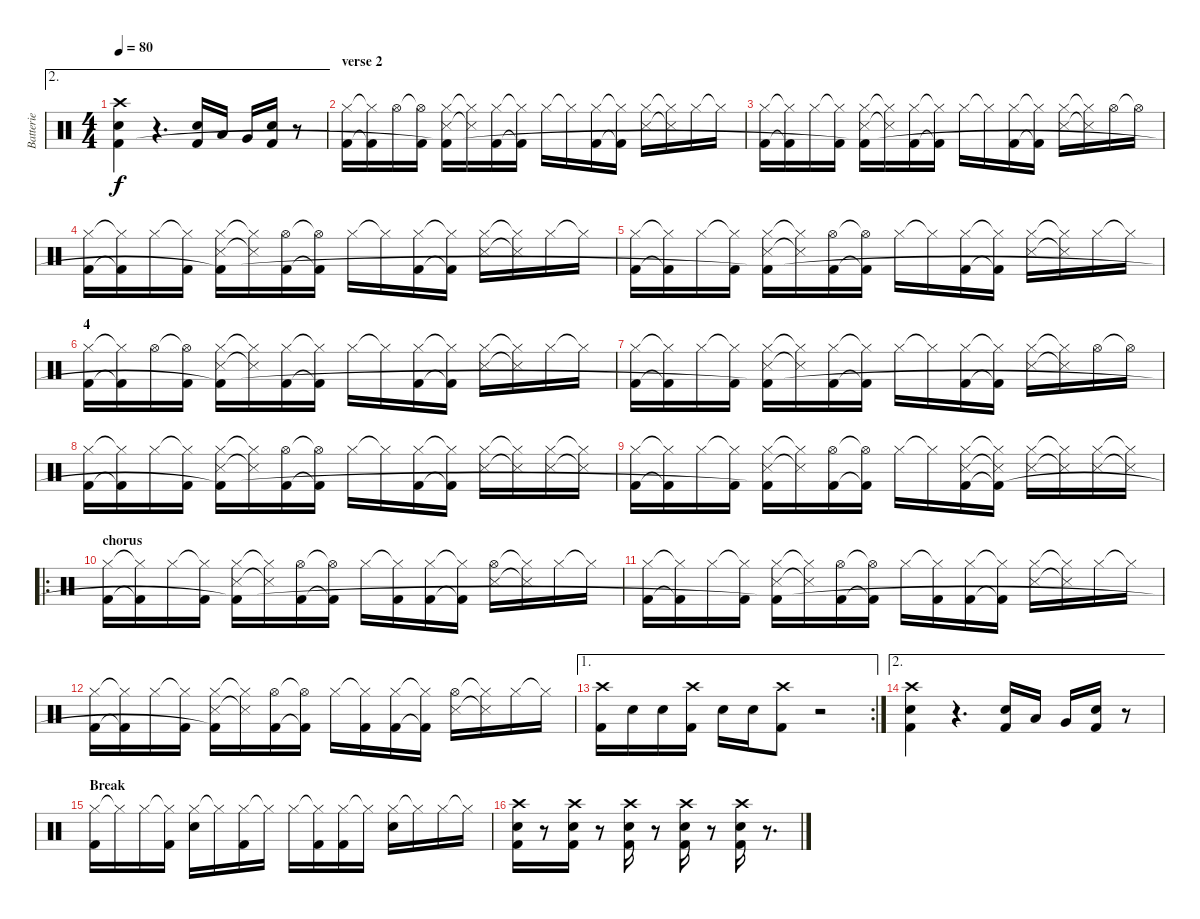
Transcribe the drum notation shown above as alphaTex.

\track ("Batterie" "Batterie") {instrument percussion}
\staff {score}
\articulation defaults
\ae 2
\ts (4 4)
\tempo 80
\clef neutral
\ks c
("Crash high (hit)" "Snare (hit) 2" "Kick (hit) 2").4{dy f} r.4{d} ("Snare (hit) 2" "Kick (hit) 2").16 "Low Tom (hit)".16 "Very Low Tom (hit)".16 ("Snare (hit) 2" "Kick (hit) 2").16 r.8 |
\section ("" "verse 2")
("Hi-Hat (closed)" "Kick (hit) 2").16 ("Hi-Hat (closed)"{t} "Kick (hit) 2"{t}).16 "Hi-Hat (open)".16 ("Hi-Hat (open)"{t} "Kick (hit) 2").16 ("Hi-Hat (closed)" "Snare (side stick) 3" "Kick (hit) 2"{t}).16 ("Hi-Hat (closed)"{t} "Snare (side stick) 3"{t}).16 ("Hi-Hat (closed)" "Kick (hit) 2").16 ("Hi-Hat (closed)"{t} "Kick (hit) 2"{t}).16 "Hi-Hat (closed)".16 "Hi-Hat (closed)"{t}.16 ("Hi-Hat (closed)" "Kick (hit) 2").16 ("Hi-Hat (closed)"{t} "Kick (hit) 2"{t}).16 ("Hi-Hat (closed)" "Snare (side stick) 3").16 ("Hi-Hat (closed)"{t} "Snare (side stick) 3"{t}).16 "Hi-Hat (closed)".16 "Hi-Hat (closed)"{t}.16 |
("Hi-Hat (closed)" "Kick (hit) 2").16 ("Hi-Hat (closed)"{t} "Kick (hit) 2"{t}).16 "Hi-Hat (closed)".16 ("Hi-Hat (closed)"{t} "Kick (hit) 2").16 ("Hi-Hat (closed)" "Snare (side stick) 3" "Kick (hit) 2"{t}).16 ("Hi-Hat (closed)"{t} "Snare (side stick) 3"{t}).16 ("Hi-Hat (closed)" "Kick (hit) 2").16 ("Hi-Hat (closed)"{t} "Kick (hit) 2"{t}).16 "Hi-Hat (closed)".16 "Hi-Hat (closed)"{t}.16 ("Hi-Hat (closed)" "Kick (hit) 2").16 ("Hi-Hat (closed)"{t} "Kick (hit) 2"{t}).16 ("Hi-Hat (closed)" "Snare (side stick) 3").16 ("Hi-Hat (closed)"{t} "Snare (side stick) 3"{t}).16 "Hi-Hat (open)".16 "Hi-Hat (open)"{t}.16 |
("Hi-Hat (closed)" "Kick (hit) 2").16 ("Hi-Hat (closed)"{t} "Kick (hit) 2"{t}).16 "Hi-Hat (closed)".16 ("Hi-Hat (closed)"{t} "Kick (hit) 2").16 ("Hi-Hat (closed)" "Snare (side stick) 3" "Kick (hit) 2"{t}).16 ("Hi-Hat (closed)"{t} "Snare (side stick) 3"{t}).16 ("Hi-Hat (open)" "Kick (hit) 2").16 ("Hi-Hat (open)"{t} "Kick (hit) 2"{t}).16 "Hi-Hat (closed)".16 "Hi-Hat (closed)"{t}.16 ("Hi-Hat (closed)" "Kick (hit) 2").16 ("Hi-Hat (closed)"{t} "Kick (hit) 2"{t}).16 ("Hi-Hat (closed)" "Snare (side stick) 3").16 ("Hi-Hat (closed)"{t} "Snare (side stick) 3"{t}).16 "Hi-Hat (closed)".16 "Hi-Hat (closed)"{t}.16 |
("Hi-Hat (closed)" "Kick (hit) 2").16 ("Hi-Hat (closed)"{t} "Kick (hit) 2"{t}).16 "Hi-Hat (closed)".16 ("Hi-Hat (closed)"{t} "Kick (hit) 2").16 ("Hi-Hat (closed)" "Snare (side stick) 3" "Kick (hit) 2"{t}).16 ("Hi-Hat (closed)"{t} "Snare (side stick) 3"{t}).16 ("Hi-Hat (open)" "Kick (hit) 2").16 ("Hi-Hat (open)"{t} "Kick (hit) 2"{t}).16 "Hi-Hat (closed)".16 "Hi-Hat (closed)"{t}.16 ("Hi-Hat (closed)" "Kick (hit) 2").16 ("Hi-Hat (closed)"{t} "Kick (hit) 2"{t}).16 ("Hi-Hat (closed)" "Snare (side stick) 3").16 ("Hi-Hat (closed)"{t} "Snare (side stick) 3"{t}).16 "Hi-Hat (closed)".16 "Hi-Hat (closed)"{t}.16 |
\section ("" "4")
("Hi-Hat (closed)" "Kick (hit) 2").16 ("Hi-Hat (closed)"{t} "Kick (hit) 2"{t}).16 "Hi-Hat (open)".16 ("Hi-Hat (open)"{t} "Kick (hit) 2").16 ("Hi-Hat (closed)" "Snare (side stick) 3" "Kick (hit) 2"{t}).16 ("Hi-Hat (closed)"{t} "Snare (side stick) 3"{t}).16 ("Hi-Hat (closed)" "Kick (hit) 2").16 ("Hi-Hat (closed)"{t} "Kick (hit) 2"{t}).16 "Hi-Hat (closed)".16 "Hi-Hat (closed)"{t}.16 ("Hi-Hat (closed)" "Kick (hit) 2").16 ("Hi-Hat (closed)"{t} "Kick (hit) 2"{t}).16 ("Hi-Hat (closed)" "Snare (side stick) 3").16 ("Hi-Hat (closed)"{t} "Snare (side stick) 3"{t}).16 "Hi-Hat (closed)".16 "Hi-Hat (closed)"{t}.16 |
("Hi-Hat (closed)" "Kick (hit) 2").16 ("Hi-Hat (closed)"{t} "Kick (hit) 2"{t}).16 "Hi-Hat (closed)".16 ("Hi-Hat (closed)"{t} "Kick (hit) 2").16 ("Hi-Hat (closed)" "Snare (side stick) 3" "Kick (hit) 2"{t}).16 ("Hi-Hat (closed)"{t} "Snare (side stick) 3"{t}).16 ("Hi-Hat (closed)" "Kick (hit) 2").16 ("Hi-Hat (closed)"{t} "Kick (hit) 2"{t}).16 "Hi-Hat (closed)".16 "Hi-Hat (closed)"{t}.16 ("Hi-Hat (closed)" "Kick (hit) 2").16 ("Hi-Hat (closed)"{t} "Kick (hit) 2"{t}).16 ("Hi-Hat (closed)" "Snare (side stick) 3").16 ("Hi-Hat (closed)"{t} "Snare (side stick) 3"{t}).16 "Hi-Hat (open)".16 "Hi-Hat (open)"{t}.16 |
("Hi-Hat (closed)" "Kick (hit) 2").16 ("Hi-Hat (closed)"{t} "Kick (hit) 2"{t}).16 "Hi-Hat (closed)".16 ("Hi-Hat (closed)"{t} "Kick (hit) 2").16 ("Hi-Hat (closed)" "Snare (side stick) 3" "Kick (hit) 2"{t}).16 ("Hi-Hat (closed)"{t} "Snare (side stick) 3"{t}).16 ("Hi-Hat (open)" "Kick (hit) 2").16 ("Hi-Hat (open)"{t} "Kick (hit) 2"{t}).16 "Hi-Hat (closed)".16 "Hi-Hat (closed)"{t}.16 ("Hi-Hat (closed)" "Kick (hit) 2").16 ("Hi-Hat (closed)"{t} "Kick (hit) 2"{t}).16 ("Hi-Hat (closed)" "Snare (side stick) 3").16 ("Hi-Hat (closed)"{t} "Snare (side stick) 3"{t}).16 ("Hi-Hat (closed)" "Snare (side stick) 3").16 ("Hi-Hat (closed)"{t} "Snare (side stick) 3"{t}).16 |
("Hi-Hat (closed)" "Kick (hit) 2").16 ("Hi-Hat (closed)"{t} "Kick (hit) 2"{t}).16 "Hi-Hat (closed)".16 ("Hi-Hat (closed)"{t} "Kick (hit) 2").16 ("Hi-Hat (closed)" "Snare (side stick) 3" "Kick (hit) 2"{t}).16 ("Hi-Hat (closed)"{t} "Snare (side stick) 3"{t}).16 ("Hi-Hat (open)" "Kick (hit) 2").16 ("Hi-Hat (open)"{t} "Kick (hit) 2"{t}).16 "Hi-Hat (closed)".16 "Hi-Hat (closed)"{t}.16 ("Hi-Hat (closed)" "Snare (side stick) 3" "Kick (hit) 2").16 ("Hi-Hat (closed)"{t} "Snare (side stick) 3"{t} "Kick (hit) 2"{t}).16 ("Hi-Hat (closed)" "Snare (side stick) 3").16 ("Hi-Hat (closed)"{t} "Snare (side stick) 3"{t}).16 ("Hi-Hat (closed)" "Snare (side stick) 3").16 ("Hi-Hat (closed)"{t} "Snare (side stick) 3"{t}).16 |
\ro
\section ("" "chorus")
("Hi-Hat (closed)" "Kick (hit) 2").16 ("Hi-Hat (closed)"{t} "Kick (hit) 2"{t}).16 "Hi-Hat (closed)".16 ("Hi-Hat (closed)"{t} "Kick (hit) 2").16 ("Hi-Hat (closed)" "Snare (side stick) 3" "Kick (hit) 2"{t}).16 ("Hi-Hat (closed)"{t} "Snare (side stick) 3"{t}).16 ("Hi-Hat (open)" "Kick (hit) 2").16 ("Hi-Hat (open)"{t} "Kick (hit) 2"{t}).16 "Hi-Hat (closed)".16 ("Hi-Hat (closed)"{t} "Kick (hit) 2").16 ("Hi-Hat (closed)" "Kick (hit) 2").16 ("Hi-Hat (closed)"{t} "Kick (hit) 2"{t}).16 ("Hi-Hat (open)" "Snare (side stick) 3").16 ("Hi-Hat (closed)"{t} "Snare (side stick) 3"{t}).16 "Hi-Hat (closed)".16 "Hi-Hat (closed)"{t}.16 |
("Hi-Hat (closed)" "Kick (hit) 2").16 ("Hi-Hat (closed)"{t} "Kick (hit) 2"{t}).16 "Hi-Hat (closed)".16 ("Hi-Hat (closed)"{t} "Kick (hit) 2").16 ("Hi-Hat (closed)" "Snare (side stick) 3" "Kick (hit) 2"{t}).16 ("Hi-Hat (closed)"{t} "Snare (side stick) 3"{t}).16 ("Hi-Hat (open)" "Kick (hit) 2").16 ("Hi-Hat (open)"{t} "Kick (hit) 2"{t}).16 "Hi-Hat (closed)".16 ("Hi-Hat (closed)"{t} "Kick (hit) 2").16 ("Hi-Hat (closed)" "Kick (hit) 2").16 ("Hi-Hat (closed)"{t} "Kick (hit) 2"{t}).16 ("Hi-Hat (closed)" "Snare (side stick) 3").16 ("Hi-Hat (closed)"{t} "Snare (side stick) 3"{t}).16 "Hi-Hat (closed)".16 "Hi-Hat (closed)"{t}.16 |
("Hi-Hat (closed)" "Kick (hit) 2").16 ("Hi-Hat (closed)"{t} "Kick (hit) 2"{t}).16 "Hi-Hat (closed)".16 ("Hi-Hat (closed)"{t} "Kick (hit) 2").16 ("Hi-Hat (closed)" "Snare (side stick) 3" "Kick (hit) 2"{t}).16 ("Hi-Hat (closed)"{t} "Snare (side stick) 3"{t}).16 ("Hi-Hat (open)" "Kick (hit) 2").16 ("Hi-Hat (open)"{t} "Kick (hit) 2"{t}).16 "Hi-Hat (closed)".16 ("Hi-Hat (closed)"{t} "Kick (hit) 2").16 ("Hi-Hat (closed)" "Kick (hit) 2").16 ("Hi-Hat (closed)"{t} "Kick (hit) 2"{t}).16 ("Hi-Hat (open)" "Snare (side stick) 3").16 ("Hi-Hat (closed)"{t} "Snare (side stick) 3"{t}).16 "Hi-Hat (closed)".16 "Hi-Hat (closed)"{t}.16 |
\ae 1
\rc 2
("Crash high (hit)" "Kick (hit) 2").16 "Snare (hit) 2".16 "Snare (hit) 2".16 ("Crash high (hit)" "Kick (hit) 2").16 "Snare (hit) 2".16 "Snare (hit) 2".16 ("Crash high (hit)" "Kick (hit) 2").8 r.2 |
\ae 2
("Crash high (hit)" "Snare (hit) 2" "Kick (hit) 2").4 r.4{d} ("Snare (hit) 2" "Kick (hit) 2").16 "Low Tom (hit)".16 "Very Low Tom (hit)".16 ("Snare (hit) 2" "Kick (hit) 2").16 r.8 |
\section ("" "Break")
("Hi-Hat (closed)" "Kick (hit) 2").16 "Hi-Hat (closed)"{t}.16 "Hi-Hat (closed)".16 ("Hi-Hat (closed)"{t} "Kick (hit) 2").16 ("Hi-Hat (closed)" "Snare (hit) 2").16 "Hi-Hat (closed)"{t}.16 ("Hi-Hat (closed)" "Kick (hit) 2").16 "Hi-Hat (closed)"{t}.16 "Hi-Hat (closed)".16 ("Hi-Hat (closed)"{t} "Kick (hit) 2").16 ("Hi-Hat (closed)" "Kick (hit) 2").16 "Hi-Hat (closed)"{t}.16 ("Hi-Hat (closed)" "Snare (hit) 2").16 "Hi-Hat (closed)"{t}.16 "Hi-Hat (closed)".16 "Hi-Hat (closed)"{t}.16 |
("Crash high (hit)" "Snare (hit) 2" "Kick (hit) 2").16 r.8 ("Crash high (hit)" "Snare (hit) 2" "Kick (hit) 2").16 r.8 ("Crash high (hit)" "Snare (hit) 2" "Kick (hit) 2").16 r.8 ("Crash high (hit)" "Snare (hit) 2" "Kick (hit) 2").16 r.8 ("Crash high (hit)" "Snare (hit) 2" "Kick (hit) 2").16 r.8{d}
